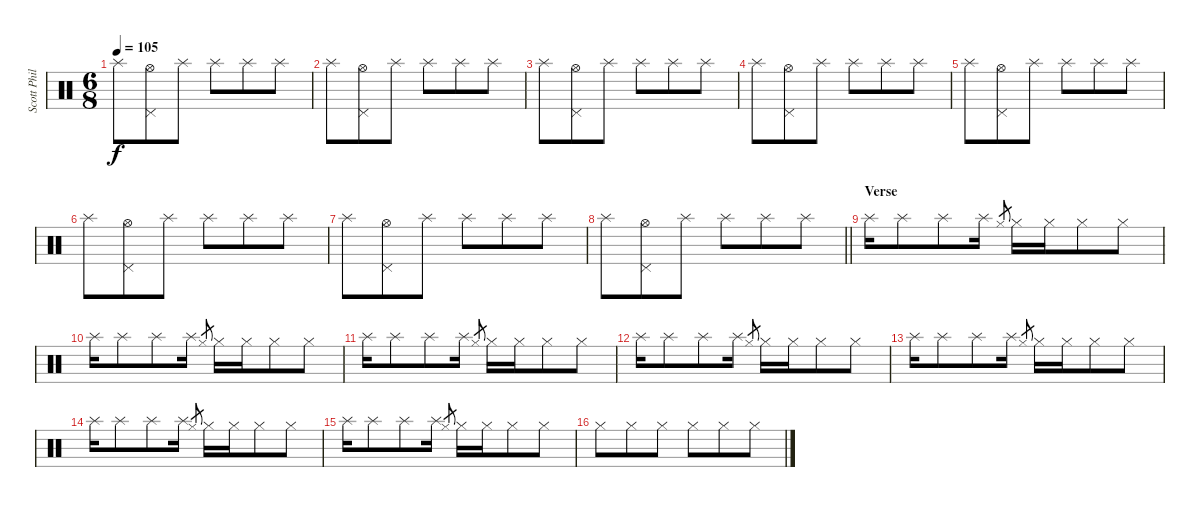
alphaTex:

\track ("Scott Phillips (Drums)" "Scott Phil") {instrument percussion}
\staff {score}
\articulation defaults
\ts (6 8)
\tempo 105
\clef neutral
\ks c "Splash (hit)".8{dy f}
("Pedal Hi-Hat (hit)" "Hi-Hat (open)").8 "Splash (hit)".8 "Splash (hit)".8 "Splash (hit)".8 "Splash (hit)".8 |
"Splash (hit)".8 ("Pedal Hi-Hat (hit)" "Hi-Hat (open)").8 "Splash (hit)".8 "Splash (hit)".8 "Splash (hit)".8 "Splash (hit)".8 |
"Splash (hit)".8 ("Pedal Hi-Hat (hit)" "Hi-Hat (open)").8 "Splash (hit)".8 "Splash (hit)".8 "Splash (hit)".8 "Splash (hit)".8 |
"Splash (hit)".8 ("Pedal Hi-Hat (hit)" "Hi-Hat (open)").8 "Splash (hit)".8 "Splash (hit)".8 "Splash (hit)".8 "Splash (hit)".8 |
"Splash (hit)".8 ("Pedal Hi-Hat (hit)" "Hi-Hat (open)").8 "Splash (hit)".8 "Splash (hit)".8 "Splash (hit)".8 "Splash (hit)".8 |
"Splash (hit)".8 ("Pedal Hi-Hat (hit)" "Hi-Hat (open)").8 "Splash (hit)".8 "Splash (hit)".8 "Splash (hit)".8 "Splash (hit)".8 |
"Splash (hit)".8 ("Pedal Hi-Hat (hit)" "Hi-Hat (open)").8 "Splash (hit)".8 "Splash (hit)".8 "Splash (hit)".8 "Splash (hit)".8 |
\barLineRight lightlight "Splash (hit)".8
("Pedal Hi-Hat (hit)" "Hi-Hat (open)").8 "Splash (hit)".8 "Splash (hit)".8 "Splash (hit)".8 "Splash (hit)".8 |
\section ("" "Verse")
"Splash (hit)".16 "Splash (hit)".8 "Splash (hit)".8 "Splash (hit)".16 "Hi-Hat (closed)".8{gr} "Hi-Hat (closed)".16 "Hi-Hat (closed)".16 "Hi-Hat (closed)".8 "Hi-Hat (closed)".8 |
"Splash (hit)".16 "Splash (hit)".8 "Splash (hit)".8 "Splash (hit)".16 "Hi-Hat (closed)".8{gr} "Hi-Hat (closed)".16 "Hi-Hat (closed)".16 "Hi-Hat (closed)".8 "Hi-Hat (closed)".8 |
"Splash (hit)".16 "Splash (hit)".8 "Splash (hit)".8 "Splash (hit)".16 "Hi-Hat (closed)".8{gr} "Hi-Hat (closed)".16 "Hi-Hat (closed)".16 "Hi-Hat (closed)".8 "Hi-Hat (closed)".8 |
"Splash (hit)".16 "Splash (hit)".8 "Splash (hit)".8 "Splash (hit)".16 "Hi-Hat (closed)".8{gr} "Hi-Hat (closed)".16 "Hi-Hat (closed)".16 "Hi-Hat (closed)".8 "Hi-Hat (closed)".8 |
"Splash (hit)".16 "Splash (hit)".8 "Splash (hit)".8 "Splash (hit)".16 "Hi-Hat (closed)".8{gr} "Hi-Hat (closed)".16 "Hi-Hat (closed)".16 "Hi-Hat (closed)".8 "Hi-Hat (closed)".8 |
"Splash (hit)".16 "Splash (hit)".8 "Splash (hit)".8 "Splash (hit)".16 "Hi-Hat (closed)".8{gr} "Hi-Hat (closed)".16 "Hi-Hat (closed)".16 "Hi-Hat (closed)".8 "Hi-Hat (closed)".8 |
"Splash (hit)".16 "Splash (hit)".8 "Splash (hit)".8 "Splash (hit)".16 "Hi-Hat (closed)".8{gr} "Hi-Hat (closed)".16 "Hi-Hat (closed)".16 "Hi-Hat (closed)".8 "Hi-Hat (closed)".8 |
"Hi-Hat (closed)".8 "Hi-Hat (closed)".8 "Hi-Hat (closed)".8 "Hi-Hat (closed)".8 "Hi-Hat (closed)".8 "Hi-Hat (closed)".8
